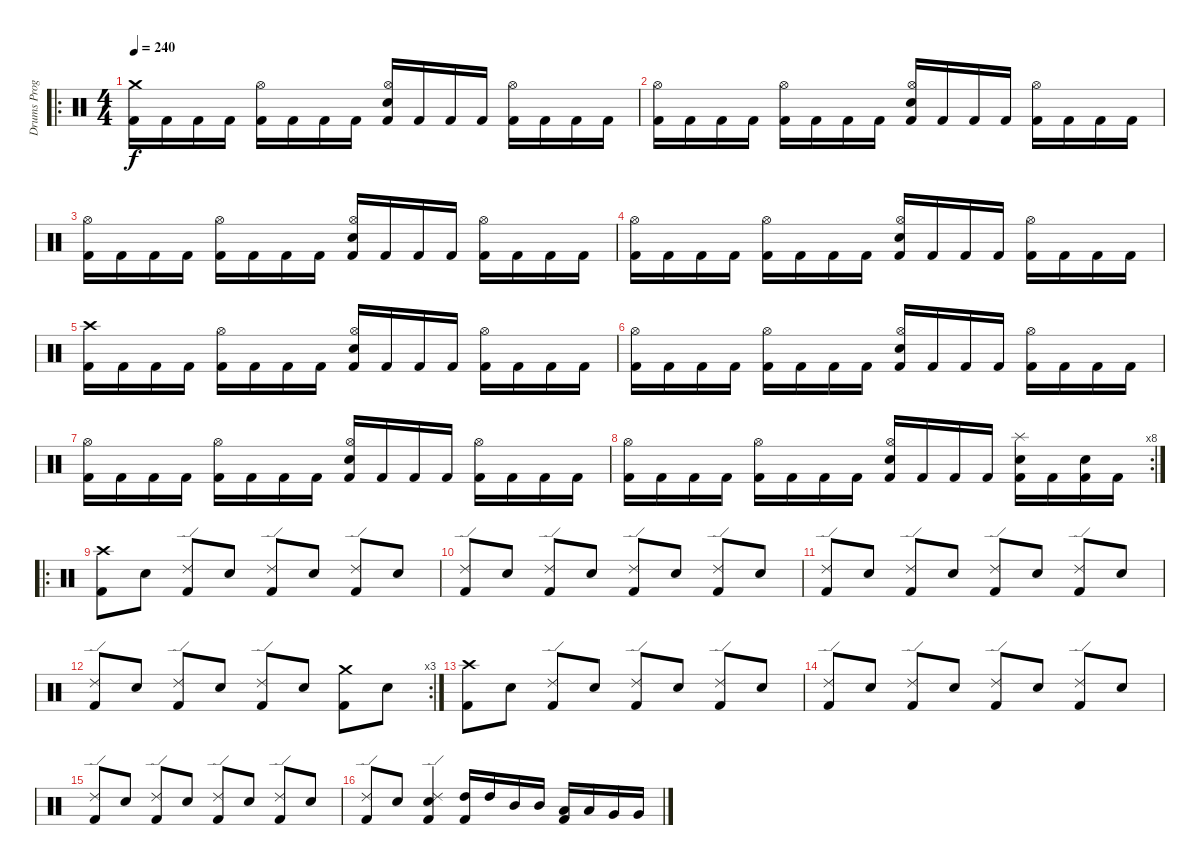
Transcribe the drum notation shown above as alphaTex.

\track ("Drums Programming" "Drums Prog") {instrument percussion}
\staff {score}
\articulation defaults
\ro
\ts (4 4)
\tempo 240
\clef neutral
\ks c
("Crash medium (hit)" "Kick (hit) 2").16{dy f} "Kick (hit) 2".16 "Kick (hit) 2".16 "Kick (hit) 2".16 ("Hi-Hat (open)" "Kick (hit) 2").16 "Kick (hit) 2".16 "Kick (hit) 2".16 "Kick (hit) 2".16 ("Hi-Hat (open)" "Electric Snare (hit)" "Kick (hit) 2").16 "Kick (hit) 2".16 "Kick (hit) 2".16 "Kick (hit) 2".16 ("Hi-Hat (open)" "Kick (hit) 2").16 "Kick (hit) 2".16 "Kick (hit) 2".16 "Kick (hit) 2".16 |
("Hi-Hat (open)" "Kick (hit) 2").16 "Kick (hit) 2".16 "Kick (hit) 2".16 "Kick (hit) 2".16 ("Hi-Hat (open)" "Kick (hit) 2").16 "Kick (hit) 2".16 "Kick (hit) 2".16 "Kick (hit) 2".16 ("Hi-Hat (open)" "Electric Snare (hit)" "Kick (hit) 2").16 "Kick (hit) 2".16 "Kick (hit) 2".16 "Kick (hit) 2".16 ("Hi-Hat (open)" "Kick (hit) 2").16 "Kick (hit) 2".16 "Kick (hit) 2".16 "Kick (hit) 2".16 |
("Hi-Hat (open)" "Kick (hit) 2").16 "Kick (hit) 2".16 "Kick (hit) 2".16 "Kick (hit) 2".16 ("Hi-Hat (open)" "Kick (hit) 2").16 "Kick (hit) 2".16 "Kick (hit) 2".16 "Kick (hit) 2".16 ("Hi-Hat (open)" "Electric Snare (hit)" "Kick (hit) 2").16 "Kick (hit) 2".16 "Kick (hit) 2".16 "Kick (hit) 2".16 ("Hi-Hat (open)" "Kick (hit) 2").16 "Kick (hit) 2".16 "Kick (hit) 2".16 "Kick (hit) 2".16 |
("Hi-Hat (open)" "Kick (hit) 2").16 "Kick (hit) 2".16 "Kick (hit) 2".16 "Kick (hit) 2".16 ("Hi-Hat (open)" "Kick (hit) 2").16 "Kick (hit) 2".16 "Kick (hit) 2".16 "Kick (hit) 2".16 ("Hi-Hat (open)" "Electric Snare (hit)" "Kick (hit) 2").16 "Kick (hit) 2".16 "Kick (hit) 2".16 "Kick (hit) 2".16 ("Hi-Hat (open)" "Kick (hit) 2").16 "Kick (hit) 2".16 "Kick (hit) 2".16 "Kick (hit) 2".16 |
("Crash high (hit)" "Kick (hit) 2").16 "Kick (hit) 2".16 "Kick (hit) 2".16 "Kick (hit) 2".16 ("Hi-Hat (open)" "Kick (hit) 2").16 "Kick (hit) 2".16 "Kick (hit) 2".16 "Kick (hit) 2".16 ("Hi-Hat (open)" "Electric Snare (hit)" "Kick (hit) 2").16 "Kick (hit) 2".16 "Kick (hit) 2".16 "Kick (hit) 2".16 ("Hi-Hat (open)" "Kick (hit) 2").16 "Kick (hit) 2".16 "Kick (hit) 2".16 "Kick (hit) 2".16 |
("Hi-Hat (open)" "Kick (hit) 2").16 "Kick (hit) 2".16 "Kick (hit) 2".16 "Kick (hit) 2".16 ("Hi-Hat (open)" "Kick (hit) 2").16 "Kick (hit) 2".16 "Kick (hit) 2".16 "Kick (hit) 2".16 ("Hi-Hat (open)" "Electric Snare (hit)" "Kick (hit) 2").16 "Kick (hit) 2".16 "Kick (hit) 2".16 "Kick (hit) 2".16 ("Hi-Hat (open)" "Kick (hit) 2").16 "Kick (hit) 2".16 "Kick (hit) 2".16 "Kick (hit) 2".16 |
("Hi-Hat (open)" "Kick (hit) 2").16 "Kick (hit) 2".16 "Kick (hit) 2".16 "Kick (hit) 2".16 ("Hi-Hat (open)" "Kick (hit) 2").16 "Kick (hit) 2".16 "Kick (hit) 2".16 "Kick (hit) 2".16 ("Hi-Hat (open)" "Electric Snare (hit)" "Kick (hit) 2").16 "Kick (hit) 2".16 "Kick (hit) 2".16 "Kick (hit) 2".16 ("Hi-Hat (open)" "Kick (hit) 2").16 "Kick (hit) 2".16 "Kick (hit) 2".16 "Kick (hit) 2".16 |
\rc 8
("Hi-Hat (open)" "Kick (hit) 2").16 "Kick (hit) 2".16 "Kick (hit) 2".16 "Kick (hit) 2".16 ("Hi-Hat (open)" "Kick (hit) 2").16 "Kick (hit) 2".16 "Kick (hit) 2".16 "Kick (hit) 2".16 ("Hi-Hat (open)" "Electric Snare (hit)" "Kick (hit) 2").16 "Kick (hit) 2".16 "Kick (hit) 2".16 "Kick (hit) 2".16 ("Splash (hit)" "Electric Snare (hit)" "Kick (hit) 2").16 "Kick (hit) 2".16 ("Electric Snare (hit)" "Kick (hit) 2").16 "Kick (hit) 2".16 |
\ro
("Crash high (hit)" "Kick (hit) 2").8 "Electric Snare (hit)".8 ("Ride (edge) 2" "Kick (hit) 2").8 "Electric Snare (hit)".8 ("Ride (edge) 2" "Kick (hit) 2").8 "Electric Snare (hit)".8 ("Ride (edge) 2" "Kick (hit) 2").8 "Electric Snare (hit)".8 |
("Ride (edge) 2" "Kick (hit) 2").8 "Electric Snare (hit)".8 ("Ride (edge) 2" "Kick (hit) 2").8 "Electric Snare (hit)".8 ("Ride (edge) 2" "Kick (hit) 2").8 "Electric Snare (hit)".8 ("Ride (edge) 2" "Kick (hit) 2").8 "Electric Snare (hit)".8 |
("Ride (edge) 2" "Kick (hit) 2").8 "Electric Snare (hit)".8 ("Ride (edge) 2" "Kick (hit) 2").8 "Electric Snare (hit)".8 ("Ride (edge) 2" "Kick (hit) 2").8 "Electric Snare (hit)".8 ("Ride (edge) 2" "Kick (hit) 2").8 "Electric Snare (hit)".8 |
\rc 3
("Ride (edge) 2" "Kick (hit) 2").8 "Electric Snare (hit)".8 ("Ride (edge) 2" "Kick (hit) 2").8 "Electric Snare (hit)".8 ("Ride (edge) 2" "Kick (hit) 2").8 "Electric Snare (hit)".8 ("Crash medium (hit)" "Kick (hit) 2").8 "Electric Snare (hit)".8 |
("Crash high (hit)" "Kick (hit) 2").8 "Electric Snare (hit)".8 ("Ride (edge) 2" "Kick (hit) 2").8 "Electric Snare (hit)".8 ("Ride (edge) 2" "Kick (hit) 2").8 "Electric Snare (hit)".8 ("Ride (edge) 2" "Kick (hit) 2").8 "Electric Snare (hit)".8 |
("Ride (edge) 2" "Kick (hit) 2").8 "Electric Snare (hit)".8 ("Ride (edge) 2" "Kick (hit) 2").8 "Electric Snare (hit)".8 ("Ride (edge) 2" "Kick (hit) 2").8 "Electric Snare (hit)".8 ("Ride (edge) 2" "Kick (hit) 2").8 "Electric Snare (hit)".8 |
("Ride (edge) 2" "Kick (hit) 2").8 "Electric Snare (hit)".8 ("Ride (edge) 2" "Kick (hit) 2").8 "Electric Snare (hit)".8 ("Ride (edge) 2" "Kick (hit) 2").8 "Electric Snare (hit)".8 ("Ride (edge) 2" "Kick (hit) 2").8 "Electric Snare (hit)".8 |
("Ride (edge) 2" "Kick (hit) 2").8 "Electric Snare (hit)".8 ("Ride (edge) 2" "Electric Snare (hit)" "Kick (hit) 2").4 ("High Tom (hit)" "Kick (hit) 2").16 "High Tom (hit)".16 "Mid Tom (hit)".16 "Mid Tom (hit)".16 ("Low Tom (hit)" "Kick (hit) 2").16 "Low Tom (hit)".16 "Very Low Tom (hit)".16 "Very Low Tom (hit)".16
